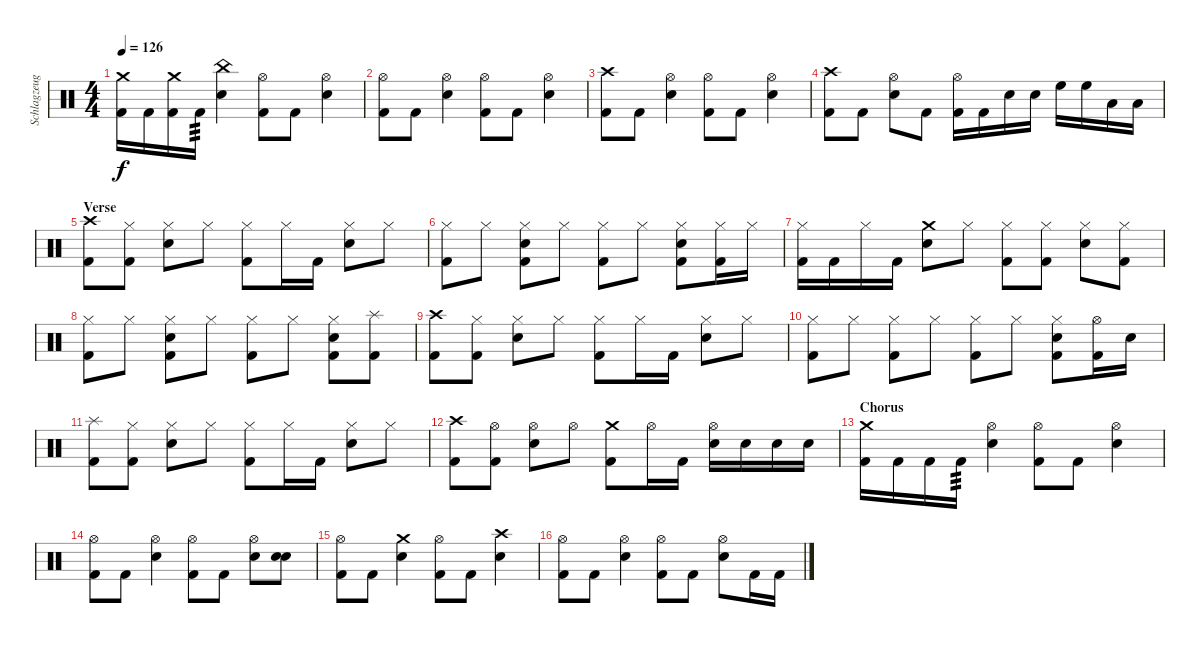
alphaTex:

\track ("Schlagzeug" "Schlagzeug") {instrument percussion}
\staff {score}
\articulation defaults
\ts (4 4)
\tempo 126
\clef neutral
\ks c
("Crash medium (hit)" "Kick (hit) 2").16{dy f} "Kick (hit) 2".16 ("Crash medium (hit)" "Kick (hit) 2").16 "Kick (hit) 2".16{tp 3} ("China (hit)" "Snare (hit) 2").4 ("Hi-Hat (open)" "Kick (hit) 2").8 "Kick (hit) 2".8 ("Hi-Hat (open)" "Snare (hit) 2").4 |
("Hi-Hat (open)" "Kick (hit) 2").8 "Kick (hit) 2".8 ("Hi-Hat (open)" "Snare (hit) 2").4 ("Hi-Hat (open)" "Kick (hit) 2").8 "Kick (hit) 2".8 ("Hi-Hat (open)" "Snare (hit) 2").4 |
("Crash high (hit)" "Kick (hit) 2").8 "Kick (hit) 2".8 ("Hi-Hat (open)" "Snare (hit) 2").4 ("Hi-Hat (open)" "Kick (hit) 2").8 "Kick (hit) 2".8 ("Hi-Hat (open)" "Snare (hit) 2").4 |
("Crash high (hit)" "Kick (hit) 2").8 "Kick (hit) 2".8 ("Hi-Hat (open)" "Snare (hit) 2").8 "Kick (hit) 2".8 ("Hi-Hat (open)" "Kick (hit) 2").16 "Kick (hit) 2".16 "Snare (hit) 2".16 "Snare (hit) 2".16 "High Floor Tom (hit)".16 "High Floor Tom (hit)".16 "Low Tom (hit)".16 "Low Tom (hit)".16 |
\section ("" "Verse")
("Crash high (hit)" "Kick (hit) 2").8 ("Hi-Hat (closed)" "Kick (hit) 2").8 ("Hi-Hat (closed)" "Snare (hit) 2").8 "Hi-Hat (closed)".8 ("Hi-Hat (closed)" "Kick (hit) 2").8 "Hi-Hat (closed)".16 "Kick (hit) 2".16 ("Hi-Hat (closed)" "Snare (hit) 2").8 "Hi-Hat (closed)".8 |
("Hi-Hat (closed)" "Kick (hit) 2").8 "Hi-Hat (closed)".8 ("Hi-Hat (closed)" "Snare (hit) 2" "Kick (hit) 2").8 "Hi-Hat (closed)".8 ("Hi-Hat (closed)" "Kick (hit) 2").8 "Hi-Hat (closed)".8 ("Hi-Hat (closed)" "Snare (hit) 2" "Kick (hit) 2").8 ("Hi-Hat (closed)" "Kick (hit) 2").16 "Hi-Hat (closed)".16 |
("Hi-Hat (closed)" "Kick (hit) 2").16 "Kick (hit) 2".16 "Hi-Hat (closed)".16 "Kick (hit) 2".16 ("Crash medium (hit)" "Snare (hit) 2").8 "Hi-Hat (closed)".8 ("Hi-Hat (closed)" "Kick (hit) 2").8 ("Hi-Hat (closed)" "Kick (hit) 2").8 ("Hi-Hat (closed)" "Snare (hit) 2").8 ("Hi-Hat (closed)" "Kick (hit) 2").8 |
("Hi-Hat (closed)" "Kick (hit) 2").8 "Hi-Hat (closed)".8 ("Hi-Hat (closed)" "Snare (hit) 2" "Kick (hit) 2").8 "Hi-Hat (closed)".8 ("Hi-Hat (closed)" "Kick (hit) 2").8 "Hi-Hat (closed)".8 ("Hi-Hat (closed)" "Snare (hit) 2" "Kick (hit) 2").8 ("Splash (hit)" "Kick (hit) 2").8 |
("Crash high (hit)" "Kick (hit) 2").8 ("Hi-Hat (closed)" "Kick (hit) 2").8 ("Hi-Hat (closed)" "Snare (hit) 2").8 "Hi-Hat (closed)".8 ("Hi-Hat (closed)" "Kick (hit) 2").8 "Hi-Hat (closed)".16 "Kick (hit) 2".16 ("Hi-Hat (closed)" "Snare (hit) 2").8 "Hi-Hat (closed)".8 |
("Hi-Hat (closed)" "Kick (hit) 2").8 "Hi-Hat (closed)".8 ("Hi-Hat (closed)" "Kick (hit) 2").8 "Hi-Hat (closed)".8 ("Hi-Hat (closed)" "Kick (hit) 2").8 "Hi-Hat (closed)".8 ("Hi-Hat (closed)" "Snare (hit) 2" "Kick (hit) 2").8 ("Hi-Hat (open)" "Kick (hit) 2").16 "Snare (hit) 2".16 |
("Splash (hit)" "Kick (hit) 2").8 ("Hi-Hat (closed)" "Kick (hit) 2").8 ("Hi-Hat (closed)" "Snare (hit) 2").8 "Hi-Hat (closed)".8 ("Hi-Hat (closed)" "Kick (hit) 2").8 "Hi-Hat (closed)".16 "Kick (hit) 2".16 ("Hi-Hat (closed)" "Snare (hit) 2").8 "Hi-Hat (closed)".8 |
("Crash high (hit)" "Kick (hit) 2").8 ("Hi-Hat (open)" "Kick (hit) 2").8 ("Hi-Hat (open)" "Snare (hit) 2").8 "Hi-Hat (open)".8 ("Crash medium (hit)" "Kick (hit) 2").8 "Hi-Hat (open)".16 "Kick (hit) 2".16 ("Hi-Hat (open)" "Snare (hit) 2").16 "Snare (hit) 2".16 "Snare (hit) 2".16 "Snare (hit) 2".16 |
\section ("" "Chorus")
("Crash medium (hit)" "Kick (hit) 2").16 "Kick (hit) 2".16 "Kick (hit) 2".16 "Kick (hit) 2".16{tp 3} ("Hi-Hat (open)" "Snare (hit) 2").4 ("Hi-Hat (open)" "Kick (hit) 2").8 "Kick (hit) 2".8 ("Hi-Hat (open)" "Snare (hit) 2").4 |
("Hi-Hat (open)" "Kick (hit) 2").8 "Kick (hit) 2".8 ("Hi-Hat (open)" "Snare (hit) 2").4 ("Hi-Hat (open)" "Kick (hit) 2").8 "Kick (hit) 2".8 ("Hi-Hat (open)" "Snare (hit) 2").8 ("Snare (hit) 2" "Snare (hit) 2").8 |
("Hi-Hat (open)" "Kick (hit) 2").8 "Kick (hit) 2".8 ("Crash medium (hit)" "Snare (hit) 2").4 ("Hi-Hat (open)" "Kick (hit) 2").8 "Kick (hit) 2".8 ("Crash high (hit)" "Snare (hit) 2").4 |
("Hi-Hat (open)" "Kick (hit) 2").8 "Kick (hit) 2".8 ("Hi-Hat (open)" "Snare (hit) 2").4 ("Hi-Hat (open)" "Kick (hit) 2").8 "Kick (hit) 2".8 ("Hi-Hat (open)" "Snare (hit) 2").8 "Kick (hit) 2".16 "Kick (hit) 2".16
